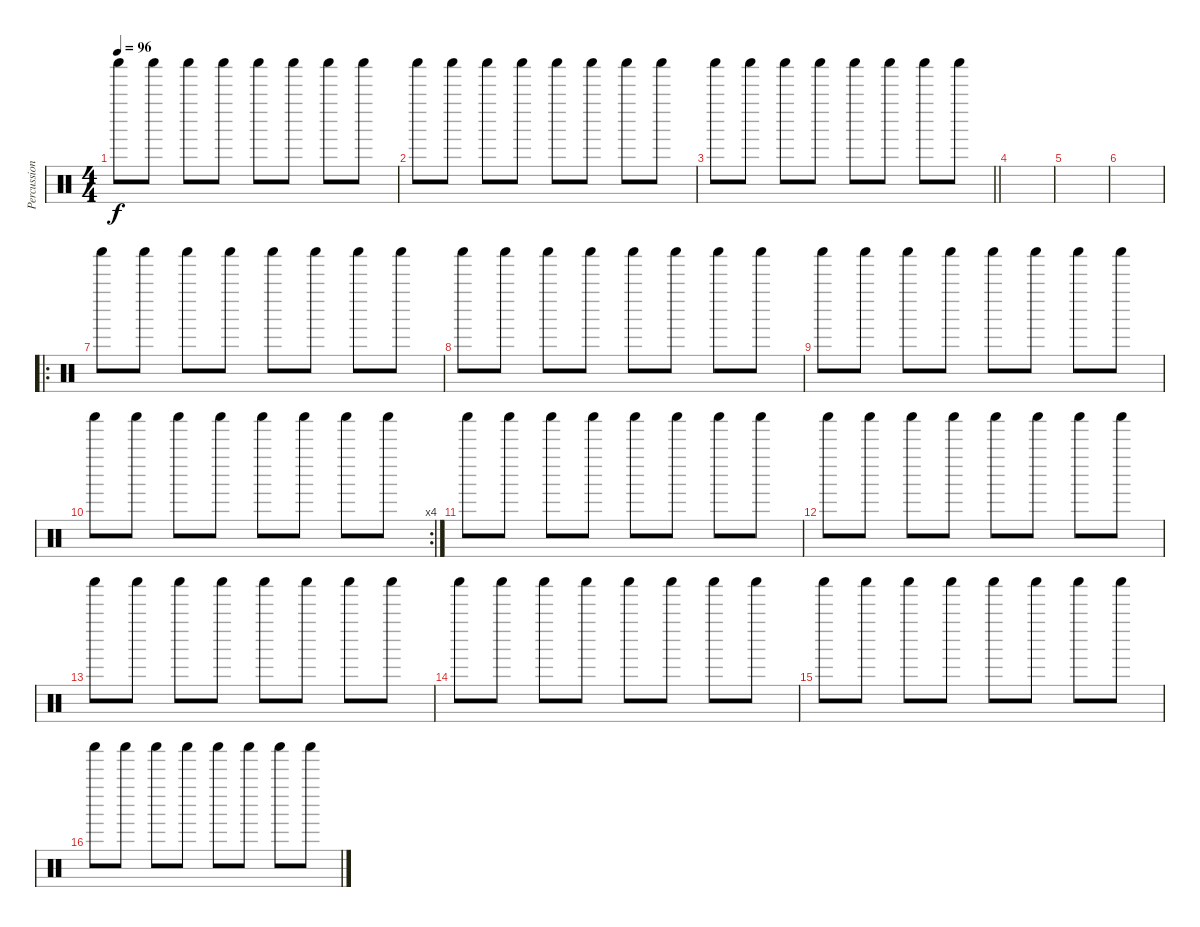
\track ("Percussion" "Percussion") {instrument percussion}
\staff {score}
\articulation defaults
\ts (4 4)
\tempo 96
\clef neutral
\ks c "Shaker (hit)".8{dy f} "Shaker (hit)".8 "Shaker (hit)".8 "Shaker (hit)".8 "Shaker (hit)".8 "Shaker (hit)".8 "Shaker (hit)".8 "Shaker (hit)".8
|
"Shaker (hit)".8 "Shaker (hit)".8 "Shaker (hit)".8 "Shaker (hit)".8 "Shaker (hit)".8 "Shaker (hit)".8 "Shaker (hit)".8 "Shaker (hit)".8 |
\barLineRight lightlight "Shaker (hit)".8 "Shaker (hit)".8 "Shaker (hit)".8 "Shaker (hit)".8 "Shaker (hit)".8 "Shaker (hit)".8 "Shaker (hit)".8 "Shaker (hit)".8
|
|
|
|
\ro "Shaker (hit)".8 "Shaker (hit)".8 "Shaker (hit)".8 "Shaker (hit)".8 "Shaker (hit)".8 "Shaker (hit)".8 "Shaker (hit)".8 "Shaker (hit)".8
|
"Shaker (hit)".8 "Shaker (hit)".8 "Shaker (hit)".8 "Shaker (hit)".8 "Shaker (hit)".8 "Shaker (hit)".8 "Shaker (hit)".8 "Shaker (hit)".8 |
"Shaker (hit)".8 "Shaker (hit)".8 "Shaker (hit)".8 "Shaker (hit)".8 "Shaker (hit)".8 "Shaker (hit)".8 "Shaker (hit)".8 "Shaker (hit)".8 |
\rc 4 "Shaker (hit)".8 "Shaker (hit)".8 "Shaker (hit)".8 "Shaker (hit)".8 "Shaker (hit)".8 "Shaker (hit)".8 "Shaker (hit)".8 "Shaker (hit)".8
|
"Shaker (hit)".8 "Shaker (hit)".8 "Shaker (hit)".8 "Shaker (hit)".8 "Shaker (hit)".8 "Shaker (hit)".8 "Shaker (hit)".8 "Shaker (hit)".8 |
"Shaker (hit)".8 "Shaker (hit)".8 "Shaker (hit)".8 "Shaker (hit)".8 "Shaker (hit)".8 "Shaker (hit)".8 "Shaker (hit)".8 "Shaker (hit)".8 |
"Shaker (hit)".8 "Shaker (hit)".8 "Shaker (hit)".8 "Shaker (hit)".8 "Shaker (hit)".8 "Shaker (hit)".8 "Shaker (hit)".8 "Shaker (hit)".8 |
"Shaker (hit)".8 "Shaker (hit)".8 "Shaker (hit)".8 "Shaker (hit)".8 "Shaker (hit)".8 "Shaker (hit)".8 "Shaker (hit)".8 "Shaker (hit)".8 |
"Shaker (hit)".8 "Shaker (hit)".8 "Shaker (hit)".8 "Shaker (hit)".8 "Shaker (hit)".8 "Shaker (hit)".8 "Shaker (hit)".8 "Shaker (hit)".8 |
"Shaker (hit)".8 "Shaker (hit)".8 "Shaker (hit)".8 "Shaker (hit)".8 "Shaker (hit)".8 "Shaker (hit)".8 "Shaker (hit)".8 "Shaker (hit)".8
